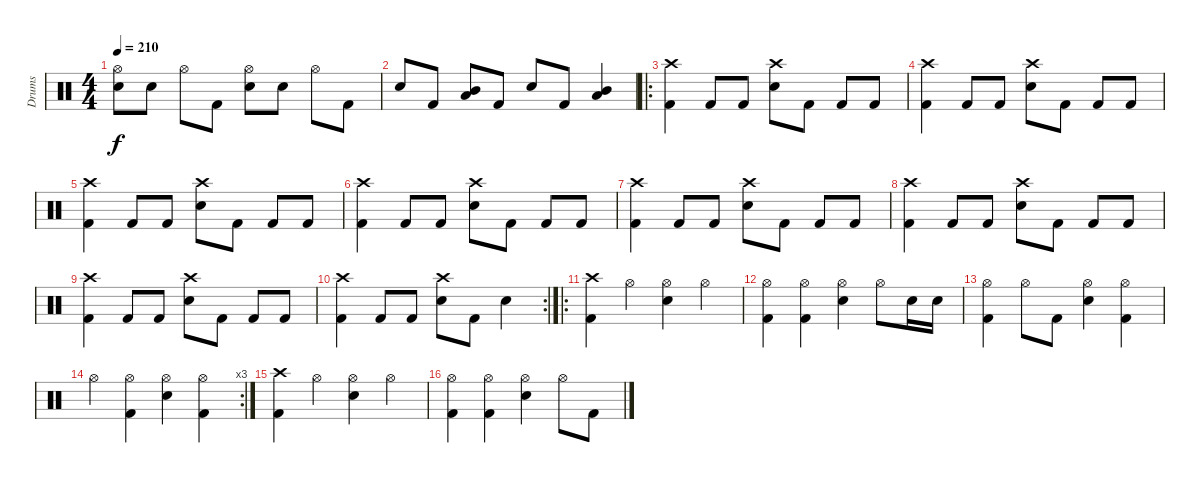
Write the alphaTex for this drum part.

\track ("Drums" "Drums") {instrument percussion}
\staff {score}
\articulation defaults
\ts (4 4)
\tempo 210
\clef neutral
\ks c
("Hi-Hat (open)" "Electric Snare (hit)").8{dy f} "Electric Snare (hit)".8 "Hi-Hat (open)".8 "Kick (hit) 2".8 ("Hi-Hat (open)" "Electric Snare (hit)").8 "Electric Snare (hit)".8 "Hi-Hat (open)".8 "Kick (hit) 2".8 |
"Electric Snare (hit)".8 "Kick (hit) 2".8 ("Mid Tom (hit)" "Low Floor Tom (hit)").8 "Kick (hit) 2".8 "Electric Snare (hit)".8 "Kick (hit) 2".8 ("Mid Tom (hit)" "Low Floor Tom (hit)").4 |
\ro
("Crash high (hit)" "Kick (hit) 2").4 "Kick (hit) 2".8 "Kick (hit) 2".8 ("Crash high (hit)" "Electric Snare (hit)").8 "Kick (hit) 2".8 "Kick (hit) 2".8 "Kick (hit) 2".8 |
("Crash high (hit)" "Kick (hit) 2").4 "Kick (hit) 2".8 "Kick (hit) 2".8 ("Crash high (hit)" "Electric Snare (hit)").8 "Kick (hit) 2".8 "Kick (hit) 2".8 "Kick (hit) 2".8 |
("Crash high (hit)" "Kick (hit) 2").4 "Kick (hit) 2".8 "Kick (hit) 2".8 ("Crash high (hit)" "Electric Snare (hit)").8 "Kick (hit) 2".8 "Kick (hit) 2".8 "Kick (hit) 2".8 |
("Crash high (hit)" "Kick (hit) 2").4 "Kick (hit) 2".8 "Kick (hit) 2".8 ("Crash high (hit)" "Electric Snare (hit)").8 "Kick (hit) 2".8 "Kick (hit) 2".8 "Kick (hit) 2".8 |
("Crash high (hit)" "Kick (hit) 2").4 "Kick (hit) 2".8 "Kick (hit) 2".8 ("Crash high (hit)" "Electric Snare (hit)").8 "Kick (hit) 2".8 "Kick (hit) 2".8 "Kick (hit) 2".8 |
("Crash high (hit)" "Kick (hit) 2").4 "Kick (hit) 2".8 "Kick (hit) 2".8 ("Crash high (hit)" "Electric Snare (hit)").8 "Kick (hit) 2".8 "Kick (hit) 2".8 "Kick (hit) 2".8 |
("Crash high (hit)" "Kick (hit) 2").4 "Kick (hit) 2".8 "Kick (hit) 2".8 ("Crash high (hit)" "Electric Snare (hit)").8 "Kick (hit) 2".8 "Kick (hit) 2".8 "Kick (hit) 2".8 |
\rc 2
("Crash high (hit)" "Kick (hit) 2").4 "Kick (hit) 2".8 "Kick (hit) 2".8 ("Crash high (hit)" "Electric Snare (hit)").8 "Kick (hit) 2".8 "Electric Snare (hit)".4 |
\ro
("Crash high (hit)" "Kick (hit) 2").4 "Hi-Hat (open)".4 ("Hi-Hat (open)" "Electric Snare (hit)").4 "Hi-Hat (open)".4 |
("Hi-Hat (open)" "Kick (hit) 2").4 ("Hi-Hat (open)" "Kick (hit) 2").4 ("Hi-Hat (open)" "Electric Snare (hit)").4 "Hi-Hat (open)".8 "Electric Snare (hit)".16 "Electric Snare (hit)".16 |
("Hi-Hat (open)" "Kick (hit) 2").4 "Hi-Hat (open)".8 "Kick (hit) 2".8 ("Hi-Hat (open)" "Electric Snare (hit)").4 ("Hi-Hat (open)" "Kick (hit) 2").4 |
\rc 3 "Hi-Hat (open)".4
("Hi-Hat (open)" "Kick (hit) 2").4 ("Hi-Hat (open)" "Electric Snare (hit)").4 ("Hi-Hat (open)" "Kick (hit) 2").4 |
("Crash high (hit)" "Kick (hit) 2").4 "Hi-Hat (open)".4 ("Hi-Hat (open)" "Electric Snare (hit)").4 "Hi-Hat (open)".4 |
("Hi-Hat (open)" "Kick (hit) 2").4 ("Hi-Hat (open)" "Kick (hit) 2").4 ("Hi-Hat (open)" "Electric Snare (hit)").4 "Hi-Hat (open)".8 "Kick (hit) 2".8
